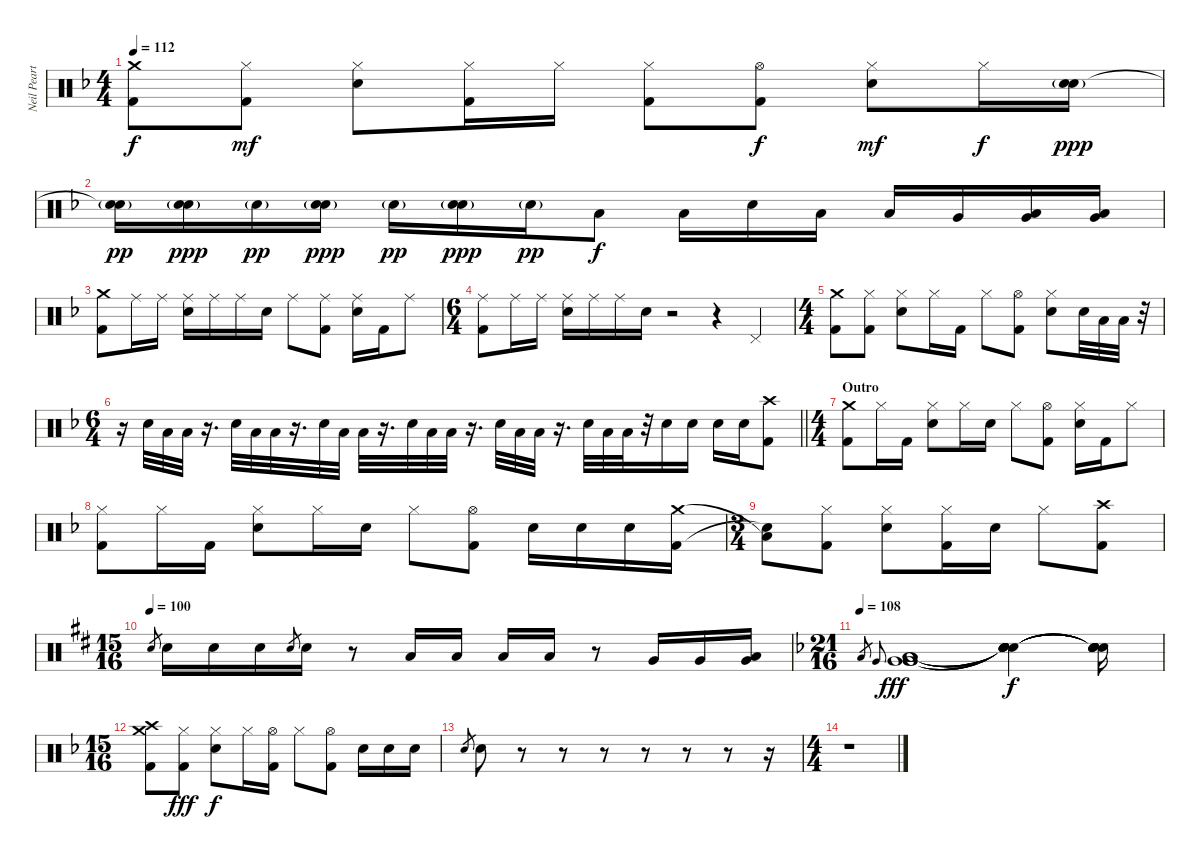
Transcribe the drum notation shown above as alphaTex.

\track ("Neil Peart" "Neil Peart") {instrument percussion}
\staff {score}
\articulation defaults
\ts (4 4)
\tempo 112
\clef neutral
\ks dminor
("Crash medium (hit)" "Kick (hit) 2").8{dy f} ("Hi-Hat (closed)" "Kick (hit) 2").8{dy mf} ("Hi-Hat (closed)" "Electric Snare (hit)").8 ("Hi-Hat (closed)" "Kick (hit) 2").16 "Hi-Hat (closed)".16 ("Hi-Hat (closed)" "Kick (hit) 2").8 ("Hi-Hat (open)" "Kick (hit) 2").8{dy f} ("Hi-Hat (closed)" "Electric Snare (hit)").8{dy mf} "Hi-Hat (closed)".16{dy f} ("Electric Snare (hit)"{g} "Electric Snare (hit)").16{dy ppp} |
("Electric Snare (hit)"{g} "Electric Snare (hit)"{t}).16{dy pp} ("Electric Snare (hit)"{g} "Electric Snare (hit)").16{dy ppp} "Electric Snare (hit)"{g}.16{dy pp} ("Electric Snare (hit)"{g} "Electric Snare (hit)").16{dy ppp} "Electric Snare (hit)"{g}.16{dy pp} ("Electric Snare (hit)"{g} "Electric Snare (hit)").16{dy ppp} "Electric Snare (hit)"{g}.16{dy pp} "Low Tom (hit)".8{dy f} "Low Tom (hit)".16 "Electric Snare (hit)".16 "Low Tom (hit)".16 "Low Tom (hit)".16 "Very Low Tom (hit)".16 ("Very Low Tom (hit)" "Low Floor Tom (hit)").16 ("Very Low Tom (hit)" "Low Floor Tom (hit)").16 |
("Crash medium (hit)" "Kick (hit) 2").8 "Ride (middle)".16 "Ride (middle)".16 ("Ride (middle)" "Electric Snare (hit)").16 "Ride (middle)".16 "Ride (middle)".16 "Electric Snare (hit)".16 "Ride (middle)".8 ("Ride (middle)" "Kick (hit) 2").8 ("Ride (middle)" "Electric Snare (hit)").16 "Kick (hit) 2".16 "Ride (middle)".8 |
\ts (6 4)
("Ride (middle)" "Kick (hit) 2").8 "Ride (middle)".16 "Ride (middle)".16 ("Ride (middle)" "Electric Snare (hit)").16 "Ride (middle)".16 "Ride (middle)".16 "Electric Snare (hit)".16 r.2 r.4 "Pedal Hi-Hat (hit)".4 |
\ts (4 4)
("Crash medium (hit)" "Kick (hit) 2").8 ("Hi-Hat (closed)" "Kick (hit) 2").8 ("Hi-Hat (closed)" "Electric Snare (hit)").8 "Hi-Hat (closed)".16 "Kick (hit) 2".16 "Hi-Hat (closed)".8 ("Hi-Hat (open)" "Kick (hit) 2").8 ("Hi-Hat (closed)" "Electric Snare (hit)").8 "Electric Snare (hit)".32 "Low Tom (hit)".32 "Low Floor Tom (hit)".32 r.32 |
\ts (6 4)
\barLineRight lightlight
r.16 "Electric Snare (hit)".32 "Low Tom (hit)".32 "Low Floor Tom (hit)".32 r.16{d} "Electric Snare (hit)".32 "Low Tom (hit)".32 "Low Floor Tom (hit)".32 r.16{d} "Electric Snare (hit)".32 "Low Tom (hit)".32 "Low Floor Tom (hit)".32 r.16{d} "Electric Snare (hit)".32 "Low Tom (hit)".32 "Low Floor Tom (hit)".32 r.16{d} "Electric Snare (hit)".32 "Low Tom (hit)".32 "Low Floor Tom (hit)".32 r.16{d} "Electric Snare (hit)".32 "Low Tom (hit)".32 "Low Floor Tom (hit)".32 r.32 "Electric Snare (hit)".16 "Electric Snare (hit)".16 "Electric Snare (hit)".16 "Electric Snare (hit)".16 ("Crash high (hit)" "Kick (hit) 2").8 |
\ts (4 4)
\section ("" "Outro")
("Crash medium (hit)" "Kick (hit) 2").8 "Hi-Hat (closed)".16 "Kick (hit) 2".16 ("Hi-Hat (closed)" "Electric Snare (hit)").8 "Hi-Hat (closed)".16 "Electric Snare (hit)".16 "Hi-Hat (closed)".8 ("Hi-Hat (open)" "Kick (hit) 2").8 ("Hi-Hat (closed)" "Electric Snare (hit)").16 "Kick (hit) 2".16 "Hi-Hat (closed)".8 |
("Hi-Hat (closed)" "Kick (hit) 2").8 "Hi-Hat (closed)".16 "Kick (hit) 2".16 ("Hi-Hat (closed)" "Electric Snare (hit)").8 "Hi-Hat (closed)".16 "Electric Snare (hit)".16 "Hi-Hat (closed)".8 ("Hi-Hat (open)" "Kick (hit) 2").8 "Electric Snare (hit)".16 "Electric Snare (hit)".16 "Electric Snare (hit)".16 ("Crash medium (hit)" "Kick (hit) 2").16 |
\ts (3 4)
("Low Tom (hit)"{t} "Snare (hit)"{t}).8 ("Hi-Hat (closed)" "Kick (hit) 2").8 ("Hi-Hat (closed)" "Electric Snare (hit)").8 ("Hi-Hat (closed)" "Kick (hit) 2").16 "Electric Snare (hit)".16 "Hi-Hat (closed)".8 ("Crash high (hit)" "Kick (hit) 2").8 |
\ts (15 16)
\tempo 100
\ks d "Electric Snare (hit)".8{gr} "Electric Snare (hit)".16 "Electric Snare (hit)".16 "Electric Snare (hit)".16 "Electric Snare (hit)".8{gr} "Electric Snare (hit)".16
r.8 "Low Tom (hit)".16 "Low Tom (hit)".16 "Low Tom (hit)".16 "Low Tom (hit)".16 r.8 "Very Low Tom (hit)".16 "Very Low Tom (hit)".16 ("Low Floor Tom (hit)" "Very Low Tom (hit)").16 |
\ts (21 16)
\tempo 108
\ks dminor "Low Floor Tom (hit)".16{gr} "Very Low Tom (hit)".16{gr onbeat}
("Low Floor Tom (hit)" "Low Floor Tom (hit)" "Very Low Tom (hit)" "Very Low Tom (hit)" "Very Low Tom (hit)" "Low Floor Tom (hit)").1{dy fff} ("Snare (hit)"{t} "Snare (hit)"{t} "Snare (hit)"{t} "Snare (hit)"{t} "Snare (hit)"{t} "Snare (hit)"{t}).4{dy f} ("Snare (hit)"{t} "Snare (hit)"{t} "Snare (hit)"{t} "Snare (hit)"{t} "Snare (hit)"{t} "Snare (hit)"{t}).16 |
\ts (15 16)
("Crash high (hit)" "Crash medium (hit)" "Kick (hit) 2").8 ("Hi-Hat (closed)" "Kick (hit) 2").8{dy fff} ("Hi-Hat (closed)" "Electric Snare (hit)").8{dy f} "Hi-Hat (closed)".16 ("Hi-Hat (open)" "Kick (hit) 2").16 "Hi-Hat (closed)".8 ("Hi-Hat (open)" "Kick (hit) 2").8 "Electric Snare (hit)".16 "Electric Snare (hit)".16 "Electric Snare (hit)".16 |
"Electric Snare (hit)".8{gr} "Electric Snare (hit)".8 r.8 r.8 r.8 r.8 r.8 r.8 r.16 |
\ts (4 4)
r.1
